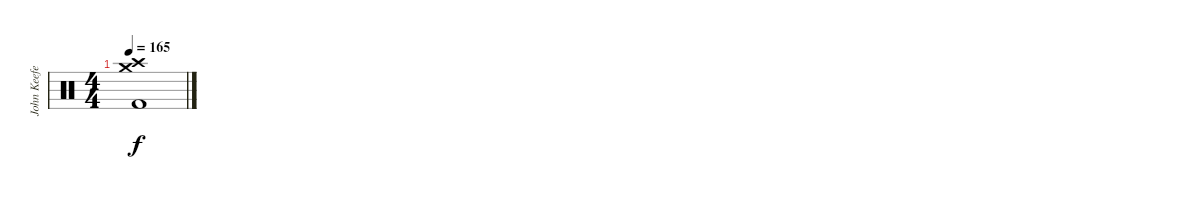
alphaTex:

\track ("John Keefe (Drums)" "John Keefe") {instrument percussion}
\staff {score}
\articulation defaults
\ts (4 4)
\tempo 165
\clef neutral
\ks c
("Crash medium (hit)" "Crash high (hit)" "Kick (hit) 2").1{dy f}
